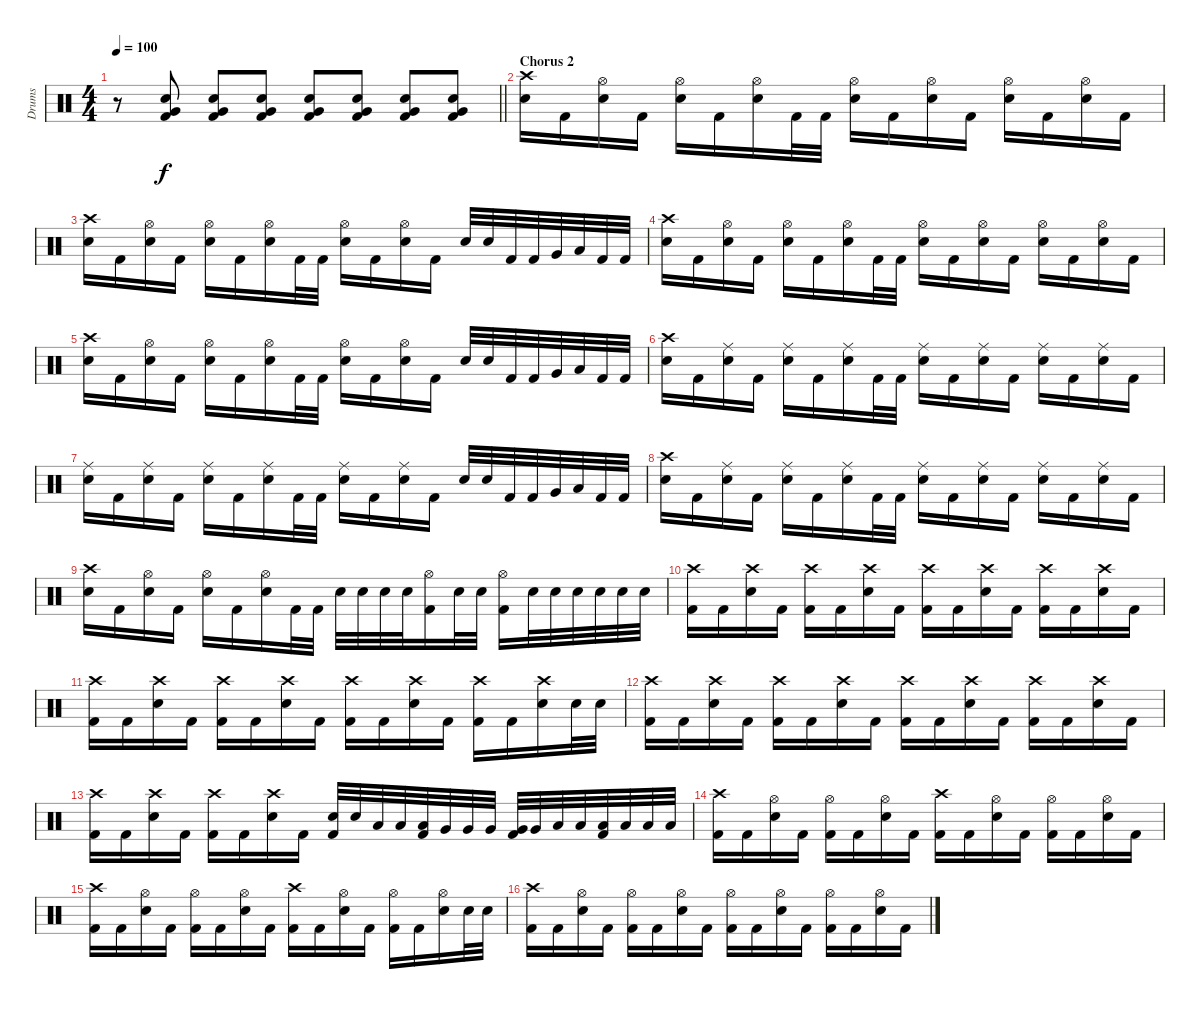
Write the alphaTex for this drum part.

\track ("Drums" "Drums") {instrument percussion}
\staff {score}
\articulation defaults
\ts (4 4)
\tempo 100
\clef neutral
\barLineRight lightlight
\ks c
r.8{dy f} ("Electric Snare (hit)" "Kick (hit) 2" "Very Low Tom (hit)").8{volume 7} ("Very Low Tom (hit)" "Electric Snare (hit)" "Kick (hit) 2").8{volume 9} ("Kick (hit) 2" "Very Low Tom (hit)" "Electric Snare (hit)").8{volume 11} ("Kick (hit) 2" "Electric Snare (hit)" "Very Low Tom (hit)").8{volume 13} ("Kick (hit) 2" "Electric Snare (hit)" "Very Low Tom (hit)").8{volume 16} ("Very Low Tom (hit)" "Kick (hit) 2" "Electric Snare (hit)").8{volume 16} ("Kick (hit) 2" "Electric Snare (hit)" "Very Low Tom (hit)").8{volume 16} |
\section ("" "Chorus 2")
("Electric Snare (hit)" "Crash high (hit)").16 "Kick (hit) 2".16 ("Electric Snare (hit)" "Hi-Hat (open)").16 "Kick (hit) 2".16 ("Electric Snare (hit)" "Hi-Hat (open)").16 "Kick (hit) 2".16 ("Electric Snare (hit)" "Hi-Hat (open)").16 "Kick (hit) 2".32 "Kick (hit) 2".32 ("Electric Snare (hit)" "Hi-Hat (open)").16 "Kick (hit) 2".16 ("Electric Snare (hit)" "Hi-Hat (open)").16 "Kick (hit) 2".16 ("Electric Snare (hit)" "Hi-Hat (open)").16 "Kick (hit) 2".16 ("Electric Snare (hit)" "Hi-Hat (open)").16 "Kick (hit) 2".16 |
("Electric Snare (hit)" "Crash high (hit)").16 "Kick (hit) 2".16 ("Electric Snare (hit)" "Hi-Hat (open)").16 "Kick (hit) 2".16 ("Electric Snare (hit)" "Hi-Hat (open)").16 "Kick (hit) 2".16 ("Electric Snare (hit)" "Hi-Hat (open)").16 "Kick (hit) 2".32 "Kick (hit) 2".32 ("Electric Snare (hit)" "Hi-Hat (open)").16 "Kick (hit) 2".16 ("Electric Snare (hit)" "Hi-Hat (open)").16 "Kick (hit) 2".16 "Electric Snare (hit)".32 "Electric Snare (hit)".32 "Kick (hit) 2".32 "Kick (hit) 2".32 "Very Low Tom (hit)".32 "Low Floor Tom (hit)".32 "Kick (hit) 2".32 "Kick (hit) 2".32 |
("Electric Snare (hit)" "Crash high (hit)").16 "Kick (hit) 2".16 ("Electric Snare (hit)" "Hi-Hat (open)").16 "Kick (hit) 2".16 ("Electric Snare (hit)" "Hi-Hat (open)").16 "Kick (hit) 2".16 ("Electric Snare (hit)" "Hi-Hat (open)").16 "Kick (hit) 2".32 "Kick (hit) 2".32 ("Electric Snare (hit)" "Hi-Hat (open)").16 "Kick (hit) 2".16 ("Electric Snare (hit)" "Hi-Hat (open)").16 "Kick (hit) 2".16 ("Electric Snare (hit)" "Hi-Hat (open)").16 "Kick (hit) 2".16 ("Electric Snare (hit)" "Hi-Hat (open)").16 "Kick (hit) 2".16 |
("Electric Snare (hit)" "Crash high (hit)").16 "Kick (hit) 2".16 ("Electric Snare (hit)" "Hi-Hat (open)").16 "Kick (hit) 2".16 ("Electric Snare (hit)" "Hi-Hat (open)").16 "Kick (hit) 2".16 ("Electric Snare (hit)" "Hi-Hat (open)").16 "Kick (hit) 2".32 "Kick (hit) 2".32 ("Electric Snare (hit)" "Hi-Hat (open)").16 "Kick (hit) 2".16 ("Electric Snare (hit)" "Hi-Hat (open)").16 "Kick (hit) 2".16 "Electric Snare (hit)".32 "Electric Snare (hit)".32 "Kick (hit) 2".32 "Kick (hit) 2".32 "Very Low Tom (hit)".32 "Low Floor Tom (hit)".32 "Kick (hit) 2".32 "Kick (hit) 2".32 |
("Electric Snare (hit)" "Crash high (hit)").16 "Kick (hit) 2".16 ("Electric Snare (hit)" "Ride (middle)").16 "Kick (hit) 2".16 ("Electric Snare (hit)" "Ride (middle)").16 "Kick (hit) 2".16 ("Electric Snare (hit)" "Ride (middle)").16 "Kick (hit) 2".32 "Kick (hit) 2".32 ("Electric Snare (hit)" "Ride (middle)").16 "Kick (hit) 2".16 ("Electric Snare (hit)" "Ride (middle)").16 "Kick (hit) 2".16 ("Electric Snare (hit)" "Ride (middle)").16 "Kick (hit) 2".16 ("Electric Snare (hit)" "Ride (middle)").16 "Kick (hit) 2".16 |
("Electric Snare (hit)" "Ride (middle)").16 "Kick (hit) 2".16 ("Electric Snare (hit)" "Ride (middle)").16 "Kick (hit) 2".16 ("Electric Snare (hit)" "Ride (middle)").16 "Kick (hit) 2".16 ("Electric Snare (hit)" "Ride (middle)").16 "Kick (hit) 2".32 "Kick (hit) 2".32 ("Electric Snare (hit)" "Ride (middle)").16 "Kick (hit) 2".16 ("Electric Snare (hit)" "Ride (middle)").16 "Kick (hit) 2".16 "Electric Snare (hit)".32 "Electric Snare (hit)".32 "Kick (hit) 2".32 "Kick (hit) 2".32 "Very Low Tom (hit)".32 "Low Floor Tom (hit)".32 "Kick (hit) 2".32 "Kick (hit) 2".32 |
("Electric Snare (hit)" "Crash high (hit)").16 "Kick (hit) 2".16 ("Electric Snare (hit)" "Ride (middle)").16 "Kick (hit) 2".16 ("Electric Snare (hit)" "Ride (middle)").16 "Kick (hit) 2".16 ("Electric Snare (hit)" "Ride (middle)").16 "Kick (hit) 2".32 "Kick (hit) 2".32 ("Electric Snare (hit)" "Ride (middle)").16 "Kick (hit) 2".16 ("Electric Snare (hit)" "Ride (middle)").16 "Kick (hit) 2".16 ("Electric Snare (hit)" "Ride (middle)").16 "Kick (hit) 2".16 ("Electric Snare (hit)" "Ride (middle)").16 "Kick (hit) 2".16 |
("Electric Snare (hit)" "Crash high (hit)").16 "Kick (hit) 2".16 ("Electric Snare (hit)" "Hi-Hat (open)").16 "Kick (hit) 2".16 ("Electric Snare (hit)" "Hi-Hat (open)").16 "Kick (hit) 2".16 ("Electric Snare (hit)" "Hi-Hat (open)").16 "Kick (hit) 2".32 "Kick (hit) 2".32 "Electric Snare (hit)".32 "Snare (hit)".32 "Electric Snare (hit)".32 "Electric Snare (hit)".32 ("Kick (hit) 2" "Hi-Hat (open)").16 "Electric Snare (hit)".32 "Electric Snare (hit)".32 ("Kick (hit) 2" "Hi-Hat (open)").16 "Electric Snare (hit)".32 "Electric Snare (hit)".32 "Electric Snare (hit)".32 "Electric Snare (hit)".32 "Electric Snare (hit)".32 "Electric Snare (hit)".32 |
("Kick (hit) 2" "Crash high (hit)").16 "Kick (hit) 2".16 ("Electric Snare (hit)" "Crash high (hit)").16 "Kick (hit) 2".16 ("Kick (hit) 2" "Crash high (hit)").16 "Kick (hit) 2".16 ("Electric Snare (hit)" "Crash high (hit)").16 "Kick (hit) 2".16 ("Kick (hit) 2" "Crash high (hit)").16 "Kick (hit) 2".16 ("Electric Snare (hit)" "Crash high (hit)").16 "Kick (hit) 2".16 ("Kick (hit) 2" "Crash high (hit)").16 "Kick (hit) 2".16 ("Electric Snare (hit)" "Crash high (hit)").16 "Kick (hit) 2".16 |
("Kick (hit) 2" "Crash high (hit)").16 "Kick (hit) 2".16 ("Electric Snare (hit)" "Crash high (hit)").16 "Kick (hit) 2".16 ("Kick (hit) 2" "Crash high (hit)").16 "Kick (hit) 2".16 ("Electric Snare (hit)" "Crash high (hit)").16 "Kick (hit) 2".16 ("Kick (hit) 2" "Crash high (hit)").16 "Kick (hit) 2".16 ("Electric Snare (hit)" "Crash high (hit)").16 "Kick (hit) 2".16 ("Kick (hit) 2" "Crash high (hit)").16 "Kick (hit) 2".16 ("Electric Snare (hit)" "Crash high (hit)").16 "Electric Snare (hit)".32 "Electric Snare (hit)".32 |
("Kick (hit) 2" "Crash high (hit)").16 "Kick (hit) 2".16 ("Electric Snare (hit)" "Crash high (hit)").16 "Kick (hit) 2".16 ("Kick (hit) 2" "Crash high (hit)").16 "Kick (hit) 2".16 ("Electric Snare (hit)" "Crash high (hit)").16 "Kick (hit) 2".16 ("Kick (hit) 2" "Crash high (hit)").16 "Kick (hit) 2".16 ("Electric Snare (hit)" "Crash high (hit)").16 "Kick (hit) 2".16 ("Kick (hit) 2" "Crash high (hit)").16 "Kick (hit) 2".16 ("Electric Snare (hit)" "Crash high (hit)").16 "Kick (hit) 2".16 |
("Kick (hit) 2" "Crash high (hit)").16 "Kick (hit) 2".16 ("Electric Snare (hit)" "Crash high (hit)").16 "Kick (hit) 2".16 ("Kick (hit) 2" "Crash high (hit)").16 "Kick (hit) 2".16 ("Electric Snare (hit)" "Crash high (hit)").16 "Kick (hit) 2".16 ("Electric Snare (hit)" "Kick (hit) 2").32 "Electric Snare (hit)".32 "Low Tom (hit)".32 "Low Tom (hit)".32 ("Low Tom (hit)" "Kick (hit) 2").32 "Very Low Tom (hit)".32 "Very Low Tom (hit)".32 "Very Low Tom (hit)".32 ("Very Low Tom (hit)" "Kick (hit) 2").32 "Very Low Tom (hit)".32 "Low Floor Tom (hit)".32 "Low Floor Tom (hit)".32 ("Low Floor Tom (hit)" "Kick (hit) 2").32 "Low Floor Tom (hit)".32 "Low Floor Tom (hit)".32 "Low Floor Tom (hit)".32 |
("Kick (hit) 2" "Crash high (hit)").16 "Kick (hit) 2".16 ("Electric Snare (hit)" "Hi-Hat (open)").16 "Kick (hit) 2".16 ("Kick (hit) 2" "Hi-Hat (open)").16 "Kick (hit) 2".16 ("Electric Snare (hit)" "Hi-Hat (open)").16 "Kick (hit) 2".16 ("Kick (hit) 2" "Crash high (hit)").16 "Kick (hit) 2".16 ("Electric Snare (hit)" "Hi-Hat (open)").16 "Kick (hit) 2".16 ("Kick (hit) 2" "Hi-Hat (open)").16 "Kick (hit) 2".16 ("Electric Snare (hit)" "Hi-Hat (open)").16 "Kick (hit) 2".16 |
("Kick (hit) 2" "Crash high (hit)").16 "Kick (hit) 2".16 ("Electric Snare (hit)" "Hi-Hat (open)").16 "Kick (hit) 2".16 ("Kick (hit) 2" "Hi-Hat (open)").16 "Kick (hit) 2".16 ("Electric Snare (hit)" "Hi-Hat (open)").16 "Kick (hit) 2".16 ("Kick (hit) 2" "Crash high (hit)").16 "Kick (hit) 2".16 ("Electric Snare (hit)" "Hi-Hat (open)").16 "Kick (hit) 2".16 ("Kick (hit) 2" "Hi-Hat (open)").16 "Kick (hit) 2".16 ("Electric Snare (hit)" "Hi-Hat (open)").16 "Electric Snare (hit)".32 "Electric Snare (hit)".32 |
("Kick (hit) 2" "Crash high (hit)").16 "Kick (hit) 2".16 ("Electric Snare (hit)" "Hi-Hat (open)").16 "Kick (hit) 2".16 ("Kick (hit) 2" "Hi-Hat (open)").16 "Kick (hit) 2".16 ("Electric Snare (hit)" "Hi-Hat (open)").16 "Kick (hit) 2".16 ("Kick (hit) 2" "Hi-Hat (open)").16 "Kick (hit) 2".16 ("Electric Snare (hit)" "Hi-Hat (open)").16 "Kick (hit) 2".16 ("Kick (hit) 2" "Hi-Hat (open)").16 "Kick (hit) 2".16 ("Electric Snare (hit)" "Hi-Hat (open)").16 "Kick (hit) 2".16
